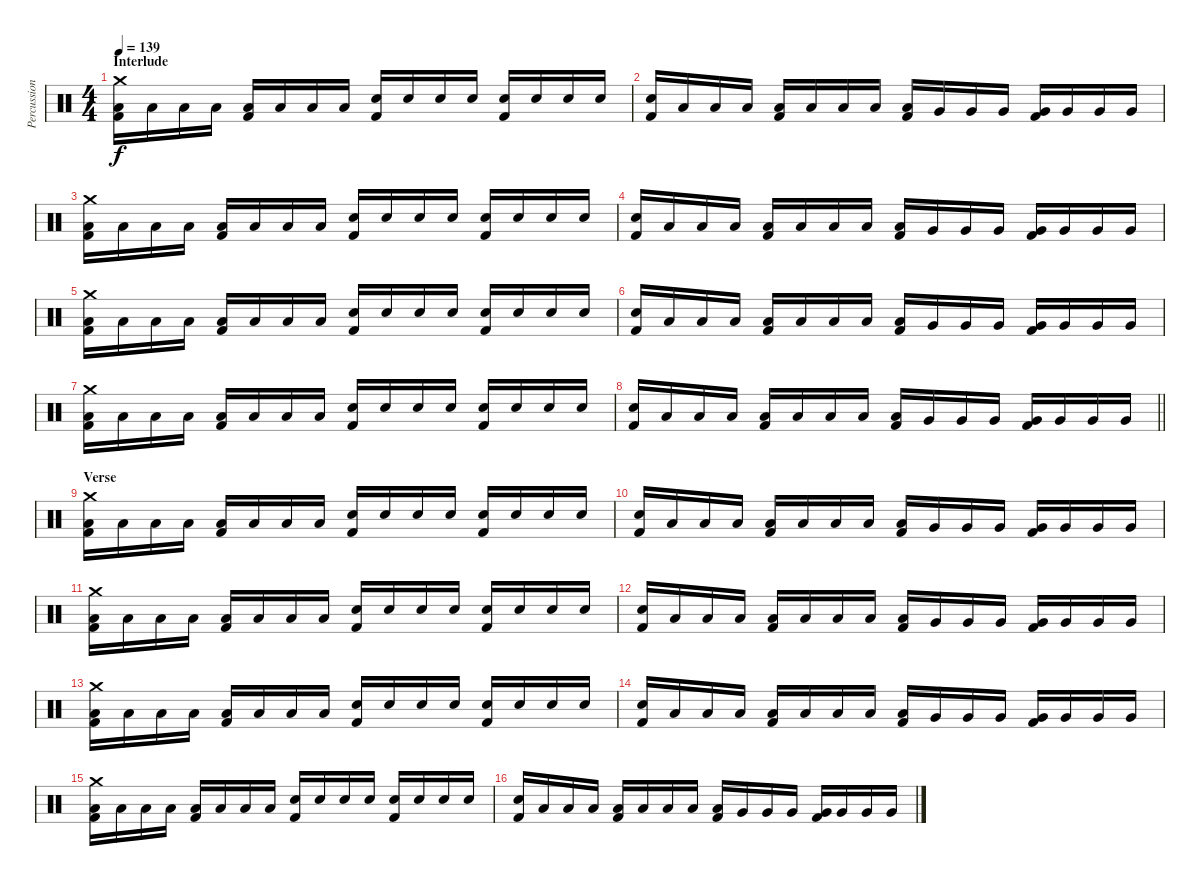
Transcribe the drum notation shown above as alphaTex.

\track ("Percussion" "Percussion") {instrument percussion}
\staff {score}
\articulation defaults
\ts (4 4)
\section ("" "Interlude")
\tempo 139
\clef neutral
\ks c
("Crash medium (hit)" "Low Floor Tom (hit)" "Kick (hit) 2").16{dy f} "Low Floor Tom (hit)".16 "Low Floor Tom (hit)".16 "Low Floor Tom (hit)".16 ("Low Floor Tom (hit)" "Kick (hit) 2").16 "Low Floor Tom (hit)".16 "Low Floor Tom (hit)".16 "Low Floor Tom (hit)".16 ("Electric Snare (hit)" "Kick (hit) 2").16 "Electric Snare (hit)".16 "Electric Snare (hit)".16 "Electric Snare (hit)".16 ("Electric Snare (hit)" "Kick (hit) 2").16 "Electric Snare (hit)".16 "Electric Snare (hit)".16 "Electric Snare (hit)".16 |
("Electric Snare (hit)" "Kick (hit) 2").16 "Low Tom (hit)".16 "Low Tom (hit)".16 "Low Tom (hit)".16 ("Low Tom (hit)" "Kick (hit) 2").16 "Low Tom (hit)".16 "Low Tom (hit)".16 "Low Tom (hit)".16 ("Low Tom (hit)" "Kick (hit) 2").16 "Very Low Tom (hit)".16 "Very Low Tom (hit)".16 "Very Low Tom (hit)".16 ("Very Low Tom (hit)" "Kick (hit) 2").16 "Very Low Tom (hit)".16 "Very Low Tom (hit)".16 "Very Low Tom (hit)".16 |
("Crash medium (hit)" "Low Floor Tom (hit)" "Kick (hit) 2").16 "Low Floor Tom (hit)".16 "Low Floor Tom (hit)".16 "Low Floor Tom (hit)".16 ("Low Floor Tom (hit)" "Kick (hit) 2").16 "Low Floor Tom (hit)".16 "Low Floor Tom (hit)".16 "Low Floor Tom (hit)".16 ("Electric Snare (hit)" "Kick (hit) 2").16 "Electric Snare (hit)".16 "Electric Snare (hit)".16 "Electric Snare (hit)".16 ("Electric Snare (hit)" "Kick (hit) 2").16 "Electric Snare (hit)".16 "Electric Snare (hit)".16 "Electric Snare (hit)".16 |
("Electric Snare (hit)" "Kick (hit) 2").16 "Low Tom (hit)".16 "Low Tom (hit)".16 "Low Tom (hit)".16 ("Low Tom (hit)" "Kick (hit) 2").16 "Low Tom (hit)".16 "Low Tom (hit)".16 "Low Tom (hit)".16 ("Low Tom (hit)" "Kick (hit) 2").16 "Very Low Tom (hit)".16 "Very Low Tom (hit)".16 "Very Low Tom (hit)".16 ("Very Low Tom (hit)" "Kick (hit) 2").16 "Very Low Tom (hit)".16 "Very Low Tom (hit)".16 "Very Low Tom (hit)".16 |
("Crash medium (hit)" "Low Floor Tom (hit)" "Kick (hit) 2").16 "Low Floor Tom (hit)".16 "Low Floor Tom (hit)".16 "Low Floor Tom (hit)".16 ("Low Floor Tom (hit)" "Kick (hit) 2").16 "Low Floor Tom (hit)".16 "Low Floor Tom (hit)".16 "Low Floor Tom (hit)".16 ("Electric Snare (hit)" "Kick (hit) 2").16 "Electric Snare (hit)".16 "Electric Snare (hit)".16 "Electric Snare (hit)".16 ("Electric Snare (hit)" "Kick (hit) 2").16 "Electric Snare (hit)".16 "Electric Snare (hit)".16 "Electric Snare (hit)".16 |
("Electric Snare (hit)" "Kick (hit) 2").16 "Low Tom (hit)".16 "Low Tom (hit)".16 "Low Tom (hit)".16 ("Low Tom (hit)" "Kick (hit) 2").16 "Low Tom (hit)".16 "Low Tom (hit)".16 "Low Tom (hit)".16 ("Low Tom (hit)" "Kick (hit) 2").16 "Very Low Tom (hit)".16 "Very Low Tom (hit)".16 "Very Low Tom (hit)".16 ("Very Low Tom (hit)" "Kick (hit) 2").16 "Very Low Tom (hit)".16 "Very Low Tom (hit)".16 "Very Low Tom (hit)".16 |
("Crash medium (hit)" "Low Floor Tom (hit)" "Kick (hit) 2").16 "Low Floor Tom (hit)".16 "Low Floor Tom (hit)".16 "Low Floor Tom (hit)".16 ("Low Floor Tom (hit)" "Kick (hit) 2").16 "Low Floor Tom (hit)".16 "Low Floor Tom (hit)".16 "Low Floor Tom (hit)".16 ("Electric Snare (hit)" "Kick (hit) 2").16 "Electric Snare (hit)".16 "Electric Snare (hit)".16 "Electric Snare (hit)".16 ("Electric Snare (hit)" "Kick (hit) 2").16 "Electric Snare (hit)".16 "Electric Snare (hit)".16 "Electric Snare (hit)".16 |
\barLineRight lightlight
("Electric Snare (hit)" "Kick (hit) 2").16 "Low Tom (hit)".16 "Low Tom (hit)".16 "Low Tom (hit)".16 ("Low Tom (hit)" "Kick (hit) 2").16 "Low Tom (hit)".16 "Low Tom (hit)".16 "Low Tom (hit)".16 ("Low Tom (hit)" "Kick (hit) 2").16 "Very Low Tom (hit)".16 "Very Low Tom (hit)".16 "Very Low Tom (hit)".16 ("Very Low Tom (hit)" "Kick (hit) 2").16 "Very Low Tom (hit)".16 "Very Low Tom (hit)".16 "Very Low Tom (hit)".16 |
\section ("" "Verse")
("Crash medium (hit)" "Low Floor Tom (hit)" "Kick (hit) 2").16 "Low Floor Tom (hit)".16 "Low Floor Tom (hit)".16 "Low Floor Tom (hit)".16 ("Low Floor Tom (hit)" "Kick (hit) 2").16 "Low Floor Tom (hit)".16 "Low Floor Tom (hit)".16 "Low Floor Tom (hit)".16 ("Electric Snare (hit)" "Kick (hit) 2").16 "Electric Snare (hit)".16 "Electric Snare (hit)".16 "Electric Snare (hit)".16 ("Electric Snare (hit)" "Kick (hit) 2").16 "Electric Snare (hit)".16 "Electric Snare (hit)".16 "Electric Snare (hit)".16 |
("Electric Snare (hit)" "Kick (hit) 2").16 "Low Tom (hit)".16 "Low Tom (hit)".16 "Low Tom (hit)".16 ("Low Tom (hit)" "Kick (hit) 2").16 "Low Tom (hit)".16 "Low Tom (hit)".16 "Low Tom (hit)".16 ("Low Tom (hit)" "Kick (hit) 2").16 "Very Low Tom (hit)".16 "Very Low Tom (hit)".16 "Very Low Tom (hit)".16 ("Very Low Tom (hit)" "Kick (hit) 2").16 "Very Low Tom (hit)".16 "Very Low Tom (hit)".16 "Very Low Tom (hit)".16 |
("Crash medium (hit)" "Low Floor Tom (hit)" "Kick (hit) 2").16 "Low Floor Tom (hit)".16 "Low Floor Tom (hit)".16 "Low Floor Tom (hit)".16 ("Low Floor Tom (hit)" "Kick (hit) 2").16 "Low Floor Tom (hit)".16 "Low Floor Tom (hit)".16 "Low Floor Tom (hit)".16 ("Electric Snare (hit)" "Kick (hit) 2").16 "Electric Snare (hit)".16 "Electric Snare (hit)".16 "Electric Snare (hit)".16 ("Electric Snare (hit)" "Kick (hit) 2").16 "Electric Snare (hit)".16 "Electric Snare (hit)".16 "Electric Snare (hit)".16 |
("Electric Snare (hit)" "Kick (hit) 2").16 "Low Tom (hit)".16 "Low Tom (hit)".16 "Low Tom (hit)".16 ("Low Tom (hit)" "Kick (hit) 2").16 "Low Tom (hit)".16 "Low Tom (hit)".16 "Low Tom (hit)".16 ("Low Tom (hit)" "Kick (hit) 2").16 "Very Low Tom (hit)".16 "Very Low Tom (hit)".16 "Very Low Tom (hit)".16 ("Very Low Tom (hit)" "Kick (hit) 2").16 "Very Low Tom (hit)".16 "Very Low Tom (hit)".16 "Very Low Tom (hit)".16 |
("Crash medium (hit)" "Low Floor Tom (hit)" "Kick (hit) 2").16 "Low Floor Tom (hit)".16 "Low Floor Tom (hit)".16 "Low Floor Tom (hit)".16 ("Low Floor Tom (hit)" "Kick (hit) 2").16 "Low Floor Tom (hit)".16 "Low Floor Tom (hit)".16 "Low Floor Tom (hit)".16 ("Electric Snare (hit)" "Kick (hit) 2").16 "Electric Snare (hit)".16 "Electric Snare (hit)".16 "Electric Snare (hit)".16 ("Electric Snare (hit)" "Kick (hit) 2").16 "Electric Snare (hit)".16 "Electric Snare (hit)".16 "Electric Snare (hit)".16 |
("Electric Snare (hit)" "Kick (hit) 2").16 "Low Tom (hit)".16 "Low Tom (hit)".16 "Low Tom (hit)".16 ("Low Tom (hit)" "Kick (hit) 2").16 "Low Tom (hit)".16 "Low Tom (hit)".16 "Low Tom (hit)".16 ("Low Tom (hit)" "Kick (hit) 2").16 "Very Low Tom (hit)".16 "Very Low Tom (hit)".16 "Very Low Tom (hit)".16 ("Very Low Tom (hit)" "Kick (hit) 2").16 "Very Low Tom (hit)".16 "Very Low Tom (hit)".16 "Very Low Tom (hit)".16 |
("Crash medium (hit)" "Low Floor Tom (hit)" "Kick (hit) 2").16 "Low Floor Tom (hit)".16 "Low Floor Tom (hit)".16 "Low Floor Tom (hit)".16 ("Low Floor Tom (hit)" "Kick (hit) 2").16 "Low Floor Tom (hit)".16 "Low Floor Tom (hit)".16 "Low Floor Tom (hit)".16 ("Electric Snare (hit)" "Kick (hit) 2").16 "Electric Snare (hit)".16 "Electric Snare (hit)".16 "Electric Snare (hit)".16 ("Electric Snare (hit)" "Kick (hit) 2").16 "Electric Snare (hit)".16 "Electric Snare (hit)".16 "Electric Snare (hit)".16 |
("Electric Snare (hit)" "Kick (hit) 2").16 "Low Tom (hit)".16 "Low Tom (hit)".16 "Low Tom (hit)".16 ("Low Tom (hit)" "Kick (hit) 2").16 "Low Tom (hit)".16 "Low Tom (hit)".16 "Low Tom (hit)".16 ("Low Tom (hit)" "Kick (hit) 2").16 "Very Low Tom (hit)".16 "Very Low Tom (hit)".16 "Very Low Tom (hit)".16 ("Very Low Tom (hit)" "Kick (hit) 2").16 "Very Low Tom (hit)".16 "Very Low Tom (hit)".16 "Very Low Tom (hit)".16
